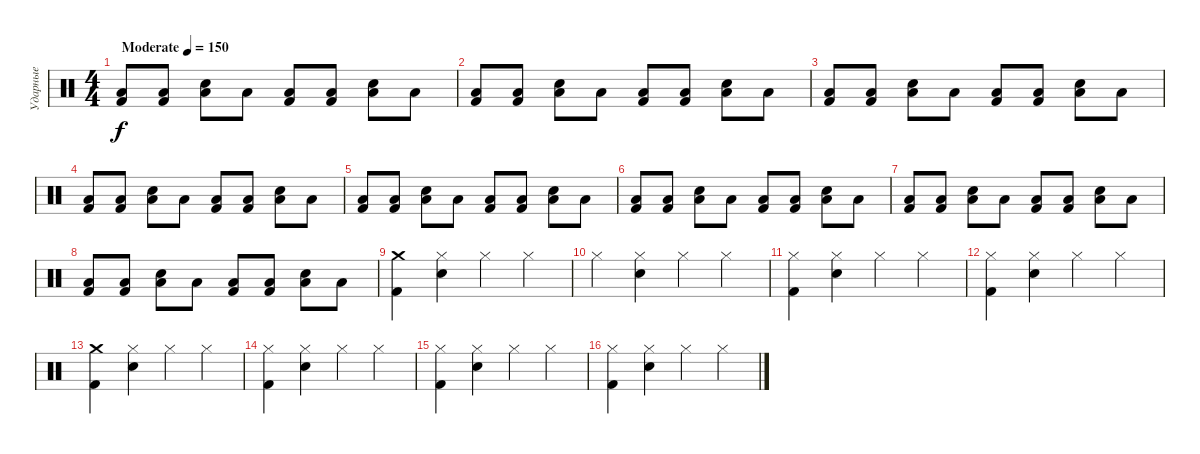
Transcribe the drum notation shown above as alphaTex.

\track ("Ударные" "Ударные") {instrument percussion}
\staff {score}
\articulation defaults
\ts (4 4)
\tempo (150 "Moderate")
\clef neutral
\ks c
("Low Floor Tom (hit)" "Kick (hit) 2").8{dy f} ("Low Floor Tom (hit)" "Kick (hit) 2").8 ("Low Floor Tom (hit)" "Snare (hit) 2").8 "Low Floor Tom (hit)".8 ("Low Floor Tom (hit)" "Kick (hit) 2").8 ("Low Floor Tom (hit)" "Kick (hit) 2").8 ("Low Floor Tom (hit)" "Snare (hit) 2").8 "Low Floor Tom (hit)".8 |
("Low Floor Tom (hit)" "Kick (hit) 2").8 ("Low Floor Tom (hit)" "Kick (hit) 2").8 ("Low Floor Tom (hit)" "Snare (hit) 2").8 "Low Floor Tom (hit)".8 ("Low Floor Tom (hit)" "Kick (hit) 2").8 ("Low Floor Tom (hit)" "Kick (hit) 2").8 ("Low Floor Tom (hit)" "Snare (hit) 2").8 "Low Floor Tom (hit)".8 |
("Low Floor Tom (hit)" "Kick (hit) 2").8 ("Low Floor Tom (hit)" "Kick (hit) 2").8 ("Low Floor Tom (hit)" "Snare (hit) 2").8 "Low Floor Tom (hit)".8 ("Low Floor Tom (hit)" "Kick (hit) 2").8 ("Low Floor Tom (hit)" "Kick (hit) 2").8 ("Low Floor Tom (hit)" "Snare (hit) 2").8 "Low Floor Tom (hit)".8 |
("Low Floor Tom (hit)" "Kick (hit) 2").8 ("Low Floor Tom (hit)" "Kick (hit) 2").8 ("Low Floor Tom (hit)" "Snare (hit) 2").8 "Low Floor Tom (hit)".8 ("Low Floor Tom (hit)" "Kick (hit) 2").8 ("Low Floor Tom (hit)" "Kick (hit) 2").8 ("Low Floor Tom (hit)" "Snare (hit) 2").8 "Low Floor Tom (hit)".8 |
("Low Floor Tom (hit)" "Kick (hit) 2").8 ("Low Floor Tom (hit)" "Kick (hit) 2").8 ("Low Floor Tom (hit)" "Snare (hit) 2").8 "Low Floor Tom (hit)".8 ("Low Floor Tom (hit)" "Kick (hit) 2").8 ("Low Floor Tom (hit)" "Kick (hit) 2").8 ("Low Floor Tom (hit)" "Snare (hit) 2").8 "Low Floor Tom (hit)".8 |
("Low Floor Tom (hit)" "Kick (hit) 2").8 ("Low Floor Tom (hit)" "Kick (hit) 2").8 ("Low Floor Tom (hit)" "Snare (hit) 2").8 "Low Floor Tom (hit)".8 ("Low Floor Tom (hit)" "Kick (hit) 2").8 ("Low Floor Tom (hit)" "Kick (hit) 2").8 ("Low Floor Tom (hit)" "Snare (hit) 2").8 "Low Floor Tom (hit)".8 |
("Low Floor Tom (hit)" "Kick (hit) 2").8 ("Low Floor Tom (hit)" "Kick (hit) 2").8 ("Low Floor Tom (hit)" "Snare (hit) 2").8 "Low Floor Tom (hit)".8 ("Low Floor Tom (hit)" "Kick (hit) 2").8 ("Low Floor Tom (hit)" "Kick (hit) 2").8 ("Low Floor Tom (hit)" "Snare (hit) 2").8 "Low Floor Tom (hit)".8 |
("Low Floor Tom (hit)" "Kick (hit) 2").8 ("Low Floor Tom (hit)" "Kick (hit) 2").8 ("Low Floor Tom (hit)" "Snare (hit) 2").8 "Low Floor Tom (hit)".8 ("Low Floor Tom (hit)" "Kick (hit) 2").8 ("Low Floor Tom (hit)" "Kick (hit) 2").8 ("Low Floor Tom (hit)" "Snare (hit) 2").8 "Low Floor Tom (hit)".8 |
("Crash medium (hit)" "Kick (hit) 2").4 ("Hi-Hat (closed)" "Snare (hit) 2").4 "Hi-Hat (closed)".4 "Hi-Hat (closed)".4 |
"Hi-Hat (closed)".4 ("Hi-Hat (closed)" "Snare (hit) 2").4 "Hi-Hat (closed)".4 "Hi-Hat (closed)".4 |
("Hi-Hat (closed)" "Kick (hit) 2").4 ("Hi-Hat (closed)" "Snare (hit) 2").4 "Hi-Hat (closed)".4 "Hi-Hat (closed)".4 |
("Hi-Hat (closed)" "Kick (hit) 2").4 ("Hi-Hat (closed)" "Snare (hit) 2").4 "Hi-Hat (closed)".4 "Hi-Hat (closed)".4 |
("Crash medium (hit)" "Kick (hit) 2").4 ("Hi-Hat (closed)" "Snare (hit) 2").4 "Hi-Hat (closed)".4 "Hi-Hat (closed)".4 |
("Hi-Hat (closed)" "Kick (hit) 2").4 ("Hi-Hat (closed)" "Snare (hit) 2").4 "Hi-Hat (closed)".4 "Hi-Hat (closed)".4 |
("Hi-Hat (closed)" "Kick (hit) 2").4 ("Hi-Hat (closed)" "Snare (hit) 2").4 "Hi-Hat (closed)".4 "Hi-Hat (closed)".4 |
("Hi-Hat (closed)" "Kick (hit) 2").4 ("Hi-Hat (closed)" "Snare (hit) 2").4 "Hi-Hat (closed)".4 "Hi-Hat (closed)".4
